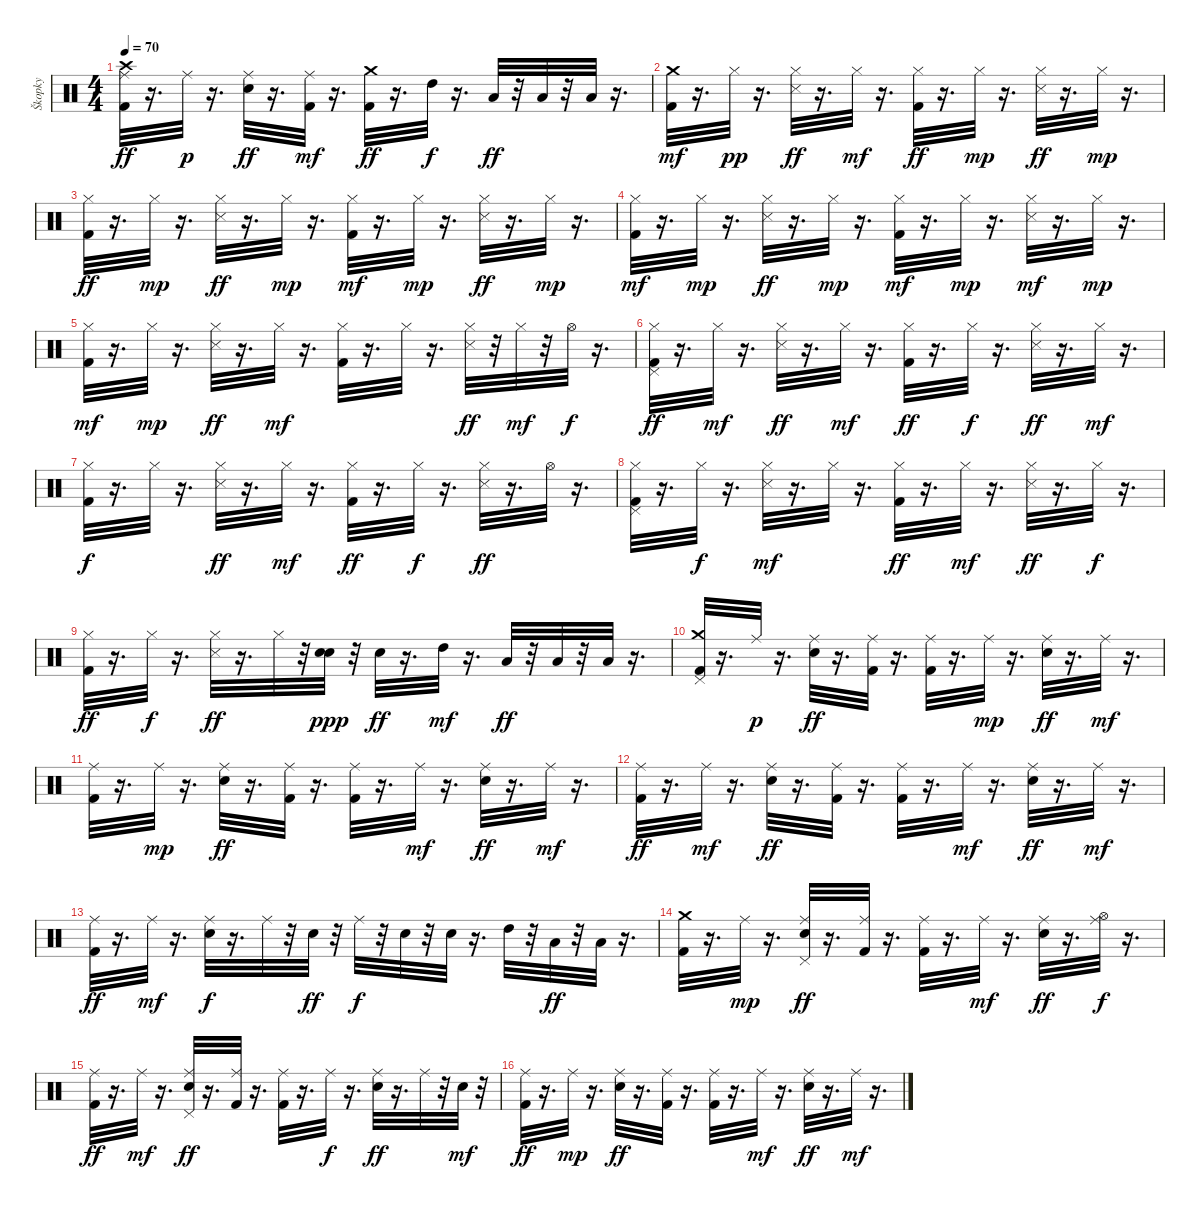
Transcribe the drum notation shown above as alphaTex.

\track ("Škopky" "Škopky") {instrument percussion}
\staff {score}
\articulation defaults
\ts (4 4)
\tempo 70
\clef neutral
\ks c
("Kick (hit) 2" "Crash high (hit)" "Ride (middle)").32{dy ff} r.16{d} "Ride (middle)".32{dy p} r.16{d} ("Snare (hit) 2" "Ride (middle)").32{dy ff} r.16{d} ("Kick (hit) 2" "Ride (middle)").32{dy mf} r.16{d} ("Kick (hit) 2" "Crash medium (hit)").32{dy ff} r.16{d} "High Tom (hit)".32{dy f} r.16{d} "Low Tom (hit)".32{dy ff} r.32 "Low Tom (hit)".32 r.32 "Low Floor Tom (hit)".32 r.16{d} |
("Kick (hit) 2" "Crash medium (hit)").32{dy mf} r.16{d} "Hi-Hat (closed)".32{dy pp} r.16{d} ("Hi-Hat (closed)" "Snare (side stick) 3").32{dy ff} r.16{d} "Hi-Hat (closed)".32{dy mf} r.16{d} ("Kick (hit) 2" "Hi-Hat (closed)").32{dy ff} r.16{d} "Hi-Hat (closed)".32{dy mp} r.16{d} ("Hi-Hat (closed)" "Snare (side stick) 3").32{dy ff} r.16{d} "Hi-Hat (closed)".32{dy mp} r.16{d} |
("Kick (hit) 2" "Hi-Hat (closed)").32{dy ff} r.16{d} "Hi-Hat (closed)".32{dy mp} r.16{d} ("Hi-Hat (closed)" "Snare (side stick) 3").32{dy ff} r.16{d} "Hi-Hat (closed)".32{dy mp} r.16{d} ("Kick (hit) 2" "Hi-Hat (closed)").32{dy mf} r.16{d} "Hi-Hat (closed)".32{dy mp} r.16{d} ("Hi-Hat (closed)" "Snare (side stick) 3").32{dy ff} r.16{d} "Hi-Hat (closed)".32{dy mp} r.16{d} |
("Kick (hit) 2" "Hi-Hat (closed)").32{dy mf} r.16{d} "Hi-Hat (closed)".32{dy mp} r.16{d} ("Hi-Hat (closed)" "Snare (side stick) 3").32{dy ff} r.16{d} "Hi-Hat (closed)".32{dy mp} r.16{d} ("Kick (hit) 2" "Hi-Hat (closed)").32{dy mf} r.16{d} "Hi-Hat (closed)".32{dy mp} r.16{d} ("Hi-Hat (closed)" "Snare (side stick) 3").32{dy mf} r.16{d} "Hi-Hat (closed)".32{dy mp} r.16{d} |
("Kick (hit) 2" "Hi-Hat (closed)").32{dy mf} r.16{d} "Hi-Hat (closed)".32{dy mp} r.16{d} ("Hi-Hat (closed)" "Snare (side stick) 3").32{dy ff} r.16{d} "Hi-Hat (closed)".32{dy mf} r.16{d} ("Kick (hit) 2" "Hi-Hat (closed)").32 r.16{d} "Hi-Hat (closed)".32 r.16{d} ("Hi-Hat (closed)" "Snare (side stick) 3").32{dy ff} r.32 "Hi-Hat (closed)".32{dy mf} r.32 "Hi-Hat (open)".32{dy f} r.16{d} |
("Pedal Hi-Hat (hit)" "Kick (hit) 2" "Hi-Hat (closed)").32{dy ff} r.16{d} "Hi-Hat (closed)".32{dy mf} r.16{d} ("Hi-Hat (closed)" "Snare (side stick) 3").32{dy ff} r.16{d} "Hi-Hat (closed)".32{dy mf} r.16{d} ("Kick (hit) 2" "Hi-Hat (closed)").32{dy ff} r.16{d} "Hi-Hat (closed)".32{dy f} r.16{d} ("Hi-Hat (closed)" "Snare (side stick) 3").32{dy ff} r.16{d} "Hi-Hat (closed)".32{dy mf} r.16{d} |
("Kick (hit) 2" "Hi-Hat (closed)").32{dy f} r.16{d} "Hi-Hat (closed)".32 r.16{d} ("Snare (side stick) 3" "Hi-Hat (closed)").32{dy ff} r.16{d} "Hi-Hat (closed)".32{dy mf} r.16{d} ("Kick (hit) 2" "Hi-Hat (closed)").32{dy ff} r.16{d} "Hi-Hat (closed)".32{dy f} r.16{d} ("Hi-Hat (closed)" "Snare (side stick) 3").32{dy ff} r.16{d} "Hi-Hat (open)".32 r.16{d} |
("Pedal Hi-Hat (hit)" "Kick (hit) 2" "Hi-Hat (closed)").32 r.16{d} "Hi-Hat (closed)".32{dy f} r.16{d} ("Snare (side stick) 3" "Hi-Hat (closed)").32{dy mf} r.16{d} "Hi-Hat (closed)".32 r.16{d} ("Kick (hit) 2" "Hi-Hat (closed)").32{dy ff} r.16{d} "Hi-Hat (closed)".32{dy mf} r.16{d} ("Hi-Hat (closed)" "Snare (side stick) 3").32{dy ff} r.16{d} "Hi-Hat (closed)".32{dy f} r.16{d} |
("Kick (hit) 2" "Hi-Hat (closed)").32{dy ff} r.16{d} "Hi-Hat (closed)".32{dy f} r.16{d} ("Snare (side stick) 3" "Hi-Hat (closed)").32{dy ff} r.16{d} "Hi-Hat (closed)".32 r.32 ("Snare (hit) 2" "Snare (hit) 2").32{dy ppp} r.32 "Snare (hit) 2".32{dy ff} r.16{d} "High Tom (hit)".32{dy mf} r.16{d} "Low Tom (hit)".32{dy ff} r.32 "Low Tom (hit)".32 r.32 "Low Floor Tom (hit)".32 r.16{d} |
("Pedal Hi-Hat (hit)" "Kick (hit) 2" "Crash medium (hit)").32 r.16{d} "Ride (middle)".32{dy p} r.16{d} ("Ride (middle)" "Snare (hit) 2").32{dy ff} r.16{d} ("Kick (hit) 2" "Ride (middle)").32 r.16{d} ("Kick (hit) 2" "Ride (middle)").32 r.16{d} "Ride (middle)".32{dy mp} r.16{d} ("Snare (hit) 2" "Ride (middle)").32{dy ff} r.16{d} "Ride (middle)".32{dy mf} r.16{d} |
("Kick (hit) 2" "Ride (middle)").32 r.16{d} "Ride (middle)".32{dy mp} r.16{d} ("Snare (hit) 2" "Ride (middle)").32{dy ff} r.16{d} ("Kick (hit) 2" "Ride (middle)").32 r.16{d} ("Kick (hit) 2" "Ride (middle)").32 r.16{d} "Ride (middle)".32{dy mf} r.16{d} ("Snare (hit) 2" "Ride (middle)").32{dy ff} r.16{d} "Ride (middle)".32{dy mf} r.16{d} |
("Kick (hit) 2" "Ride (middle)").32{dy ff} r.16{d} "Ride (middle)".32{dy mf} r.16{d} ("Snare (hit) 2" "Ride (middle)").32{dy ff} r.16{d} ("Kick (hit) 2" "Ride (middle)").32 r.16{d} ("Kick (hit) 2" "Ride (middle)").32 r.16{d} "Ride (middle)".32{dy mf} r.16{d} ("Snare (hit) 2" "Ride (middle)").32{dy ff} r.16{d} "Ride (middle)".32{dy mf} r.16{d} |
("Kick (hit) 2" "Ride (middle)").32{dy ff} r.16{d} "Ride (middle)".32{dy mf} r.16{d} ("Snare (hit) 2" "Ride (middle)").32{dy f} r.16{d} "Ride (middle)".32 r.32 "Snare (hit) 2".32{dy ff} r.32 "Ride (middle)".32{dy f} r.32 "Snare (hit) 2".32 r.32 "Snare (hit) 2".32 r.16{d} "High Tom (hit)".32 r.32 "Low Tom (hit)".32{dy ff} r.32 "Low Floor Tom (hit)".32 r.16{d} |
("Kick (hit) 2" "Crash medium (hit)").32 r.16{d} "Ride (middle)".32{dy mp} r.16{d} ("Pedal Hi-Hat (hit)" "Snare (hit) 2" "Ride (middle)").32{dy ff} r.16{d} ("Kick (hit) 2" "Ride (middle)").32 r.16{d} ("Kick (hit) 2" "Ride (middle)").32 r.16{d} "Ride (middle)".32{dy mf} r.16{d} ("Snare (hit) 2" "Ride (middle)").32{dy ff} r.16{d} ("Hi-Hat (open)" "Ride (middle)").32{dy f} r.16{d} |
("Kick (hit) 2" "Ride (middle)").32{dy ff} r.16{d} "Ride (middle)".32{dy mf} r.16{d} ("Pedal Hi-Hat (hit)" "Snare (hit) 2" "Ride (middle)").32{dy ff} r.16{d} ("Kick (hit) 2" "Ride (middle)").32 r.16{d} ("Kick (hit) 2" "Ride (middle)").32 r.16{d} "Ride (middle)".32{dy f} r.16{d} ("Snare (hit) 2" "Ride (middle)").32{dy ff} r.16{d} "Ride (middle)".32 r.32 "Snare (hit) 2".32{dy mf} r.32 |
("Kick (hit) 2" "Ride (middle)").32{dy ff} r.16{d} "Ride (middle)".32{dy mp} r.16{d} ("Ride (middle)" "Snare (hit) 2").32{dy ff} r.16{d} ("Kick (hit) 2" "Ride (middle)").32 r.16{d} ("Kick (hit) 2" "Ride (middle)").32 r.16{d} "Ride (middle)".32{dy mf} r.16{d} ("Snare (hit) 2" "Ride (middle)").32{dy ff} r.16{d} "Ride (middle)".32{dy mf} r.16{d}
